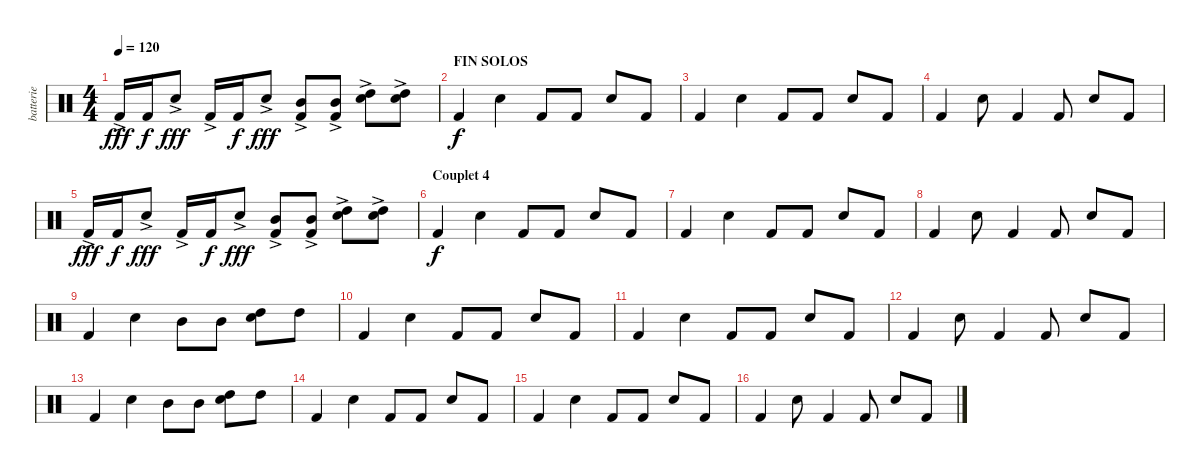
\track ("batterie" "batterie") {instrument percussion}
\staff {score}
\articulation defaults
\ts (4 4)
\tempo 120
\clef neutral
\ks c "Kick (hit) 2"{ac}.16{dy fff} "Kick (hit) 2".16{dy f} "Electric Snare (hit)"{ac}.8{dy fff} "Kick (hit) 2"{ac}.16 "Kick (hit) 2".16{dy f} "Electric Snare (hit)"{ac}.8{dy fff}
("Kick (hit) 2"{ac} "Mid Tom (hit)").8 ("Kick (hit) 2"{ac} "Mid Tom (hit)").8 ("Electric Snare (hit)"{ac} "High Tom (hit)").8 ("Electric Snare (hit)"{ac} "High Tom (hit)").8 |
\section ("" "FIN SOLOS")
"Kick (hit) 2".4{dy f} "Electric Snare (hit)".4 "Kick (hit) 2".8 "Kick (hit) 2".8 "Electric Snare (hit)".8 "Kick (hit) 2".8 |
"Kick (hit) 2".4 "Electric Snare (hit)".4 "Kick (hit) 2".8 "Kick (hit) 2".8 "Electric Snare (hit)".8 "Kick (hit) 2".8 |
"Kick (hit) 2".4 "Electric Snare (hit)".8 "Kick (hit) 2".4 "Kick (hit) 2".8 "Electric Snare (hit)".8 "Kick (hit) 2".8 |
"Kick (hit) 2"{ac}.16{dy fff} "Kick (hit) 2".16{dy f} "Electric Snare (hit)"{ac}.8{dy fff} "Kick (hit) 2"{ac}.16 "Kick (hit) 2".16{dy f} "Electric Snare (hit)"{ac}.8{dy fff} ("Kick (hit) 2"{ac} "Mid Tom (hit)").8 ("Kick (hit) 2"{ac} "Mid Tom (hit)").8 ("Electric Snare (hit)"{ac} "High Tom (hit)").8 ("Electric Snare (hit)"{ac} "High Tom (hit)").8 |
\section ("" "Couplet 4")
"Kick (hit) 2".4{dy f} "Electric Snare (hit)".4 "Kick (hit) 2".8 "Kick (hit) 2".8 "Electric Snare (hit)".8 "Kick (hit) 2".8 |
"Kick (hit) 2".4 "Electric Snare (hit)".4 "Kick (hit) 2".8 "Kick (hit) 2".8 "Electric Snare (hit)".8 "Kick (hit) 2".8 |
"Kick (hit) 2".4 "Electric Snare (hit)".8 "Kick (hit) 2".4 "Kick (hit) 2".8 "Electric Snare (hit)".8 "Kick (hit) 2".8 |
"Kick (hit) 2".4 "Electric Snare (hit)".4 "Mid Tom (hit)".8 "Mid Tom (hit)".8 ("Electric Snare (hit)" "High Tom (hit)").8 "High Tom (hit)".8 |
"Kick (hit) 2".4 "Electric Snare (hit)".4 "Kick (hit) 2".8 "Kick (hit) 2".8 "Electric Snare (hit)".8 "Kick (hit) 2".8 |
"Kick (hit) 2".4 "Electric Snare (hit)".4 "Kick (hit) 2".8 "Kick (hit) 2".8 "Electric Snare (hit)".8 "Kick (hit) 2".8 |
"Kick (hit) 2".4 "Electric Snare (hit)".8 "Kick (hit) 2".4 "Kick (hit) 2".8 "Electric Snare (hit)".8 "Kick (hit) 2".8 |
"Kick (hit) 2".4 "Electric Snare (hit)".4 "Mid Tom (hit)".8 "Mid Tom (hit)".8 ("Electric Snare (hit)" "High Tom (hit)").8 "High Tom (hit)".8 |
"Kick (hit) 2".4 "Electric Snare (hit)".4 "Kick (hit) 2".8 "Kick (hit) 2".8 "Electric Snare (hit)".8 "Kick (hit) 2".8 |
"Kick (hit) 2".4 "Electric Snare (hit)".4 "Kick (hit) 2".8 "Kick (hit) 2".8 "Electric Snare (hit)".8 "Kick (hit) 2".8 |
"Kick (hit) 2".4 "Electric Snare (hit)".8 "Kick (hit) 2".4 "Kick (hit) 2".8 "Electric Snare (hit)".8 "Kick (hit) 2".8
